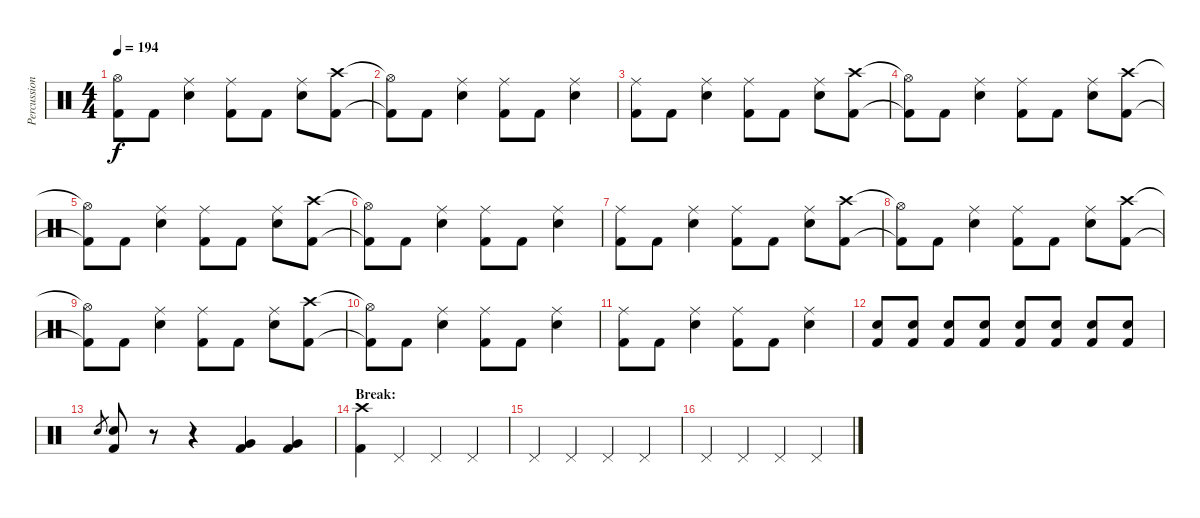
\track ("Percussion" "Percussion") {instrument percussion}
\staff {score}
\articulation defaults
\ts (4 4)
\tempo 194
\clef neutral
\ks c
("Hi-Hat (open)"{t} "Kick (hit) 2"{t}).8{dy f} "Kick (hit) 2".8 ("Ride (middle)" "Electric Snare (hit)").4 ("Ride (middle)" "Kick (hit) 2").8 "Kick (hit) 2".8 ("Ride (middle)" "Electric Snare (hit)").8 ("Crash high (hit)" "Kick (hit) 2").8 |
("Hi-Hat (open)"{t} "Kick (hit) 2"{t}).8 "Kick (hit) 2".8 ("Ride (middle)" "Electric Snare (hit)").4 ("Ride (middle)" "Kick (hit) 2").8 "Kick (hit) 2".8 ("Ride (middle)" "Electric Snare (hit)").4 |
("Ride (middle)" "Kick (hit) 2").8 "Kick (hit) 2".8 ("Ride (middle)" "Electric Snare (hit)").4 ("Ride (middle)" "Kick (hit) 2").8 "Kick (hit) 2".8 ("Ride (middle)" "Electric Snare (hit)").8 ("Crash high (hit)" "Kick (hit) 2").8 |
("Hi-Hat (open)"{t} "Kick (hit) 2"{t}).8 "Kick (hit) 2".8 ("Ride (middle)" "Electric Snare (hit)").4 ("Ride (middle)" "Kick (hit) 2").8 "Kick (hit) 2".8 ("Ride (middle)" "Electric Snare (hit)").8 ("Crash high (hit)" "Kick (hit) 2").8 |
("Hi-Hat (open)"{t} "Kick (hit) 2"{t}).8 "Kick (hit) 2".8 ("Ride (middle)" "Electric Snare (hit)").4 ("Ride (middle)" "Kick (hit) 2").8 "Kick (hit) 2".8 ("Ride (middle)" "Electric Snare (hit)").8 ("Crash high (hit)" "Kick (hit) 2").8 |
("Hi-Hat (open)"{t} "Kick (hit) 2"{t}).8 "Kick (hit) 2".8 ("Ride (middle)" "Electric Snare (hit)").4 ("Ride (middle)" "Kick (hit) 2").8 "Kick (hit) 2".8 ("Ride (middle)" "Electric Snare (hit)").4 |
("Ride (middle)" "Kick (hit) 2").8 "Kick (hit) 2".8 ("Ride (middle)" "Electric Snare (hit)").4 ("Ride (middle)" "Kick (hit) 2").8 "Kick (hit) 2".8 ("Ride (middle)" "Electric Snare (hit)").8 ("Crash high (hit)" "Kick (hit) 2").8 |
("Hi-Hat (open)"{t} "Kick (hit) 2"{t}).8 "Kick (hit) 2".8 ("Ride (middle)" "Electric Snare (hit)").4 ("Ride (middle)" "Kick (hit) 2").8 "Kick (hit) 2".8 ("Ride (middle)" "Electric Snare (hit)").8 ("Crash high (hit)" "Kick (hit) 2").8 |
("Hi-Hat (open)"{t} "Kick (hit) 2"{t}).8 "Kick (hit) 2".8 ("Ride (middle)" "Electric Snare (hit)").4 ("Ride (middle)" "Kick (hit) 2").8 "Kick (hit) 2".8 ("Ride (middle)" "Electric Snare (hit)").8 ("Crash high (hit)" "Kick (hit) 2").8 |
("Hi-Hat (open)"{t} "Kick (hit) 2"{t}).8 "Kick (hit) 2".8 ("Ride (middle)" "Electric Snare (hit)").4 ("Ride (middle)" "Kick (hit) 2").8 "Kick (hit) 2".8 ("Ride (middle)" "Electric Snare (hit)").4 |
("Ride (middle)" "Kick (hit) 2").8 "Kick (hit) 2".8 ("Ride (middle)" "Electric Snare (hit)").4 ("Ride (middle)" "Kick (hit) 2").8 "Kick (hit) 2".8 ("Ride (middle)" "Electric Snare (hit)").4 |
("Electric Snare (hit)" "Kick (hit) 2").8 ("Electric Snare (hit)" "Kick (hit) 2").8 ("Electric Snare (hit)" "Kick (hit) 2").8 ("Electric Snare (hit)" "Kick (hit) 2").8 ("Electric Snare (hit)" "Kick (hit) 2").8 ("Electric Snare (hit)" "Kick (hit) 2").8 ("Electric Snare (hit)" "Kick (hit) 2").8 ("Electric Snare (hit)" "Kick (hit) 2").8 |
"Electric Snare (hit)".8{gr} ("Electric Snare (hit)" "Kick (hit) 2").8 r.8 r.4 ("Very Low Tom (hit)" "Kick (hit) 2").4 ("Very Low Tom (hit)" "Kick (hit) 2").4 |
\section ("" "Break:")
("Crash high (hit)" "Kick (hit) 2").4 "Pedal Hi-Hat (hit)".4 "Pedal Hi-Hat (hit)".4 "Pedal Hi-Hat (hit)".4 |
"Pedal Hi-Hat (hit)".4 "Pedal Hi-Hat (hit)".4 "Pedal Hi-Hat (hit)".4 "Pedal Hi-Hat (hit)".4 |
"Pedal Hi-Hat (hit)".4 "Pedal Hi-Hat (hit)".4 "Pedal Hi-Hat (hit)".4 "Pedal Hi-Hat (hit)".4
